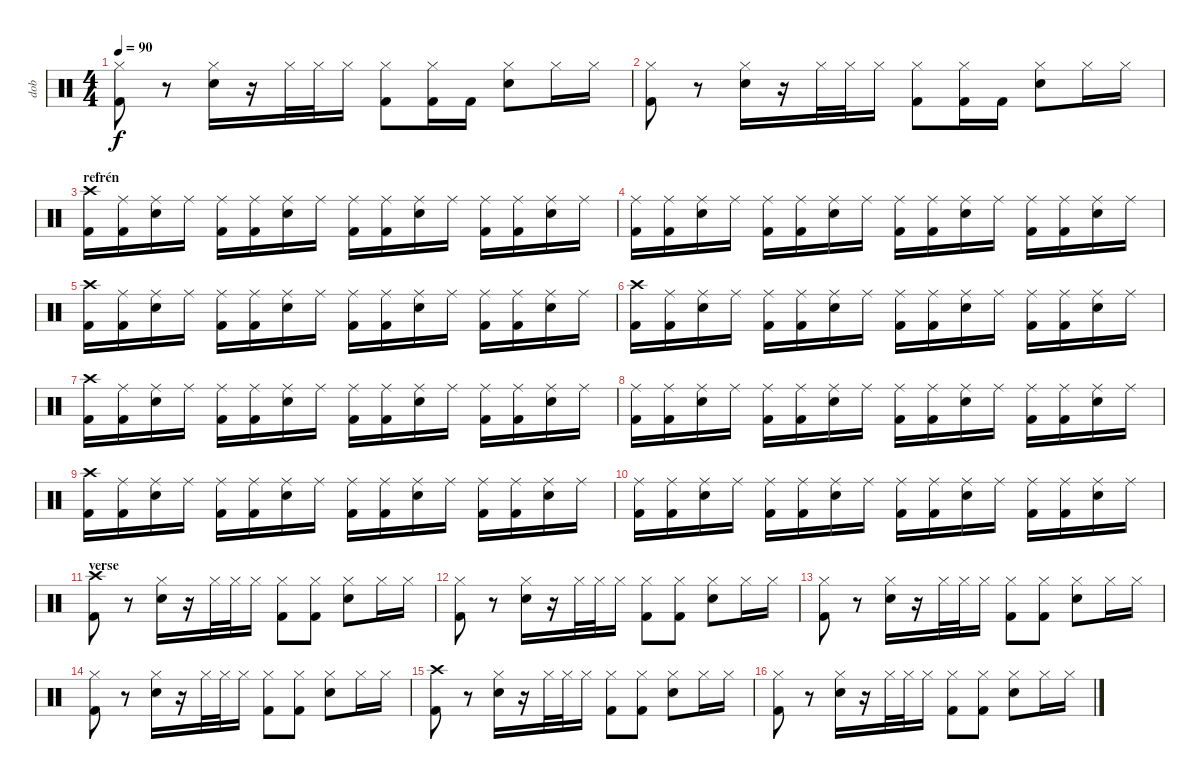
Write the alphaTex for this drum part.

\track ("dob" "dob") {instrument percussion}
\staff {score}
\articulation defaults
\ts (4 4)
\tempo 90
\clef neutral
\ks c
("Hi-Hat (closed)" "Kick (hit) 2").8{dy f} r.8 ("Hi-Hat (closed)" "Snare (hit) 2").16 r.16 "Hi-Hat (closed)".32 "Hi-Hat (closed)".32 "Hi-Hat (closed)".16 ("Hi-Hat (closed)" "Kick (hit) 2").8 ("Hi-Hat (closed)" "Kick (hit) 2").16 "Kick (hit) 2".16 ("Hi-Hat (closed)" "Snare (hit) 2").8 "Hi-Hat (closed)".16 "Hi-Hat (closed)".16 |
("Hi-Hat (closed)" "Kick (hit) 2").8 r.8 ("Hi-Hat (closed)" "Snare (hit) 2").16 r.16 "Hi-Hat (closed)".32 "Hi-Hat (closed)".32 "Hi-Hat (closed)".16 ("Hi-Hat (closed)" "Kick (hit) 2").8 ("Hi-Hat (closed)" "Kick (hit) 2").16 "Kick (hit) 2".16 ("Hi-Hat (closed)" "Snare (hit) 2").8 "Hi-Hat (closed)".16 "Hi-Hat (closed)".16 |
\section ("" "refrén")
("Crash high (hit)" "Kick (hit) 2").16 ("Ride (middle)" "Kick (hit) 2").16 ("Ride (middle)" "Snare (hit) 2").16 "Ride (middle)".16 ("Ride (middle)" "Kick (hit) 2").16 ("Ride (middle)" "Kick (hit) 2").16 ("Ride (middle)" "Snare (hit) 2").16 "Ride (middle)".16 ("Ride (middle)" "Kick (hit) 2").16 ("Ride (middle)" "Kick (hit) 2").16 ("Ride (middle)" "Snare (hit) 2").16 "Ride (middle)".16 ("Ride (middle)" "Kick (hit) 2").16 ("Ride (middle)" "Kick (hit) 2").16 ("Ride (middle)" "Snare (hit) 2").16 "Ride (middle)".16 |
("Ride (middle)" "Kick (hit) 2").16 ("Ride (middle)" "Kick (hit) 2").16 ("Ride (middle)" "Snare (hit) 2").16 "Ride (middle)".16 ("Ride (middle)" "Kick (hit) 2").16 ("Ride (middle)" "Kick (hit) 2").16 ("Ride (middle)" "Snare (hit) 2").16 "Ride (middle)".16 ("Ride (middle)" "Kick (hit) 2").16 ("Ride (middle)" "Kick (hit) 2").16 ("Ride (middle)" "Snare (hit) 2").16 "Ride (middle)".16 ("Ride (middle)" "Kick (hit) 2").16 ("Ride (middle)" "Kick (hit) 2").16 ("Ride (middle)" "Snare (hit) 2").16 "Ride (middle)".16 |
("Crash high (hit)" "Kick (hit) 2").16 ("Ride (middle)" "Kick (hit) 2").16 ("Ride (middle)" "Snare (hit) 2").16 "Ride (middle)".16 ("Ride (middle)" "Kick (hit) 2").16 ("Ride (middle)" "Kick (hit) 2").16 ("Ride (middle)" "Snare (hit) 2").16 "Ride (middle)".16 ("Ride (middle)" "Kick (hit) 2").16 ("Ride (middle)" "Kick (hit) 2").16 ("Ride (middle)" "Snare (hit) 2").16 "Ride (middle)".16 ("Ride (middle)" "Kick (hit) 2").16 ("Ride (middle)" "Kick (hit) 2").16 ("Ride (middle)" "Snare (hit) 2").16 "Ride (middle)".16 |
("Crash high (hit)" "Kick (hit) 2").16 ("Ride (middle)" "Kick (hit) 2").16 ("Ride (middle)" "Snare (hit) 2").16 "Ride (middle)".16 ("Ride (middle)" "Kick (hit) 2").16 ("Ride (middle)" "Kick (hit) 2").16 ("Ride (middle)" "Snare (hit) 2").16 "Ride (middle)".16 ("Ride (middle)" "Kick (hit) 2").16 ("Ride (middle)" "Kick (hit) 2").16 ("Ride (middle)" "Snare (hit) 2").16 "Ride (middle)".16 ("Ride (middle)" "Kick (hit) 2").16 ("Ride (middle)" "Kick (hit) 2").16 ("Ride (middle)" "Snare (hit) 2").16 "Ride (middle)".16 |
("Crash high (hit)" "Kick (hit) 2").16 ("Ride (middle)" "Kick (hit) 2").16 ("Ride (middle)" "Snare (hit) 2").16 "Ride (middle)".16 ("Ride (middle)" "Kick (hit) 2").16 ("Ride (middle)" "Kick (hit) 2").16 ("Ride (middle)" "Snare (hit) 2").16 "Ride (middle)".16 ("Ride (middle)" "Kick (hit) 2").16 ("Ride (middle)" "Kick (hit) 2").16 ("Ride (middle)" "Snare (hit) 2").16 "Ride (middle)".16 ("Ride (middle)" "Kick (hit) 2").16 ("Ride (middle)" "Kick (hit) 2").16 ("Ride (middle)" "Snare (hit) 2").16 "Ride (middle)".16 |
("Ride (middle)" "Kick (hit) 2").16 ("Ride (middle)" "Kick (hit) 2").16 ("Ride (middle)" "Snare (hit) 2").16 "Ride (middle)".16 ("Ride (middle)" "Kick (hit) 2").16 ("Ride (middle)" "Kick (hit) 2").16 ("Ride (middle)" "Snare (hit) 2").16 "Ride (middle)".16 ("Ride (middle)" "Kick (hit) 2").16 ("Ride (middle)" "Kick (hit) 2").16 ("Ride (middle)" "Snare (hit) 2").16 "Ride (middle)".16 ("Ride (middle)" "Kick (hit) 2").16 ("Ride (middle)" "Kick (hit) 2").16 ("Ride (middle)" "Snare (hit) 2").16 "Ride (middle)".16 |
("Crash high (hit)" "Kick (hit) 2").16 ("Ride (middle)" "Kick (hit) 2").16 ("Ride (middle)" "Snare (hit) 2").16 "Ride (middle)".16 ("Ride (middle)" "Kick (hit) 2").16 ("Ride (middle)" "Kick (hit) 2").16 ("Ride (middle)" "Snare (hit) 2").16 "Ride (middle)".16 ("Ride (middle)" "Kick (hit) 2").16 ("Ride (middle)" "Kick (hit) 2").16 ("Ride (middle)" "Snare (hit) 2").16 "Ride (middle)".16 ("Ride (middle)" "Kick (hit) 2").16 ("Ride (middle)" "Kick (hit) 2").16 ("Ride (middle)" "Snare (hit) 2").16 "Ride (middle)".16 |
("Ride (middle)" "Kick (hit) 2").16 ("Ride (middle)" "Kick (hit) 2").16 ("Ride (middle)" "Snare (hit) 2").16 "Ride (middle)".16 ("Ride (middle)" "Kick (hit) 2").16 ("Ride (middle)" "Kick (hit) 2").16 ("Ride (middle)" "Snare (hit) 2").16 "Ride (middle)".16 ("Ride (middle)" "Kick (hit) 2").16 ("Ride (middle)" "Kick (hit) 2").16 ("Ride (middle)" "Snare (hit) 2").16 "Ride (middle)".16 ("Ride (middle)" "Kick (hit) 2").16 ("Ride (middle)" "Kick (hit) 2").16 ("Ride (middle)" "Snare (hit) 2").16 "Ride (middle)".16 |
\section ("" "verse")
("Crash high (hit)" "Kick (hit) 2").8 r.8 ("Hi-Hat (closed)" "Snare (hit) 2").16 r.16 "Hi-Hat (closed)".32 "Hi-Hat (closed)".32 "Hi-Hat (closed)".16 ("Hi-Hat (closed)" "Kick (hit) 2").8 ("Hi-Hat (closed)" "Kick (hit) 2").8 ("Hi-Hat (closed)" "Snare (hit) 2").8 "Hi-Hat (closed)".16 "Hi-Hat (closed)".16 |
("Hi-Hat (closed)" "Kick (hit) 2").8 r.8 ("Hi-Hat (closed)" "Snare (hit) 2").16 r.16 "Hi-Hat (closed)".32 "Hi-Hat (closed)".32 "Hi-Hat (closed)".16 ("Hi-Hat (closed)" "Kick (hit) 2").8 ("Hi-Hat (closed)" "Kick (hit) 2").8 ("Hi-Hat (closed)" "Snare (hit) 2").8 "Hi-Hat (closed)".16 "Hi-Hat (closed)".16 |
("Hi-Hat (closed)" "Kick (hit) 2").8 r.8 ("Hi-Hat (closed)" "Snare (hit) 2").16 r.16 "Hi-Hat (closed)".32 "Hi-Hat (closed)".32 "Hi-Hat (closed)".16 ("Hi-Hat (closed)" "Kick (hit) 2").8 ("Hi-Hat (closed)" "Kick (hit) 2").8 ("Hi-Hat (closed)" "Snare (hit) 2").8 "Hi-Hat (closed)".16 "Hi-Hat (closed)".16 |
("Hi-Hat (closed)" "Kick (hit) 2").8 r.8 ("Hi-Hat (closed)" "Snare (hit) 2").16 r.16 "Hi-Hat (closed)".32 "Hi-Hat (closed)".32 "Hi-Hat (closed)".16 ("Hi-Hat (closed)" "Kick (hit) 2").8 ("Hi-Hat (closed)" "Kick (hit) 2").8 ("Hi-Hat (closed)" "Snare (hit) 2").8 "Hi-Hat (closed)".16 "Hi-Hat (closed)".16 |
("Crash high (hit)" "Kick (hit) 2").8 r.8 ("Hi-Hat (closed)" "Snare (hit) 2").16 r.16 "Hi-Hat (closed)".32 "Hi-Hat (closed)".32 "Hi-Hat (closed)".16 ("Hi-Hat (closed)" "Kick (hit) 2").8 ("Hi-Hat (closed)" "Kick (hit) 2").8 ("Hi-Hat (closed)" "Snare (hit) 2").8 "Hi-Hat (closed)".16 "Hi-Hat (closed)".16 |
("Hi-Hat (closed)" "Kick (hit) 2").8 r.8 ("Hi-Hat (closed)" "Snare (hit) 2").16 r.16 "Hi-Hat (closed)".32 "Hi-Hat (closed)".32 "Hi-Hat (closed)".16 ("Hi-Hat (closed)" "Kick (hit) 2").8 ("Hi-Hat (closed)" "Kick (hit) 2").8 ("Hi-Hat (closed)" "Snare (hit) 2").8 "Hi-Hat (closed)".16 "Hi-Hat (closed)".16
